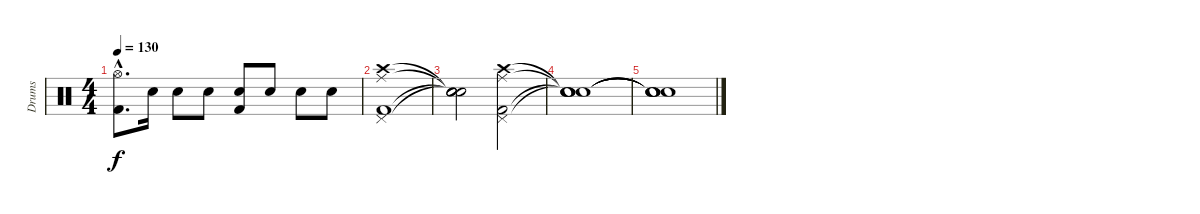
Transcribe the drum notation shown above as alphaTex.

\track ("Drums" "Drums") {instrument percussion}
\staff {score}
\articulation defaults
\ts (4 4)
\tempo 130
\clef neutral
\ks c
("Hi-Hat (open)"{hac} "Kick (hit) 2"{hac}).8{d dy f} "Snare (hit) 2".16 "Snare (hit) 2".8 "Snare (hit) 2".8 ("Snare (hit) 2" "Kick (hit) 2").8 "Snare (hit) 2".8 "Snare (hit) 2".8 "Snare (hit) 2".8 |
("Pedal Hi-Hat (hit)" "Ride (middle)" "Crash high (hit)" "Kick (hit) 2").1 |
("Snare (hit)"{t} "Snare (hit)"{t} "Snare (hit)"{t} "Snare (hit)"{t}).2 ("Pedal Hi-Hat (hit)" "Ride (middle)" "Crash high (hit)" "Kick (hit) 2").2 |
("Snare (hit)"{t} "Snare (hit)"{t} "Snare (hit)"{t} "Snare (hit)"{t}).1 |
("Snare (hit)"{t} "Snare (hit)"{t} "Snare (hit)"{t} "Snare (hit)"{t}).1
